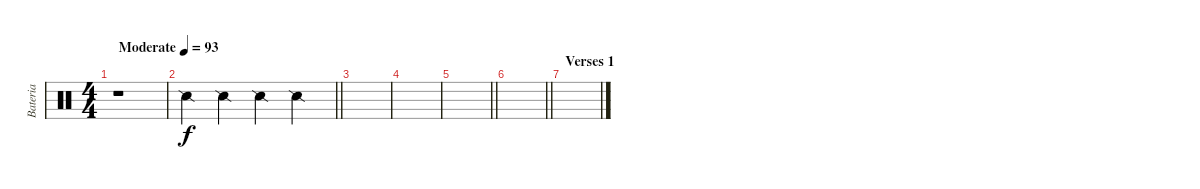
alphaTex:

\track ("Bateria" "Bateria") {instrument percussion}
\staff {score}
\articulation defaults
\ts (4 4)
\tempo (93 "Moderate")
\clef neutral
\ks c
r.1{dy f} |
\barLineRight lightlight "Snare (side stick) 2".4 "Snare (side stick) 2".4 "Snare (side stick) 2".4 "Snare (side stick) 2".4
|
|
|
\barLineRight lightlight
|
\barLineRight lightlight
|
\section ("" "Verses 1")
